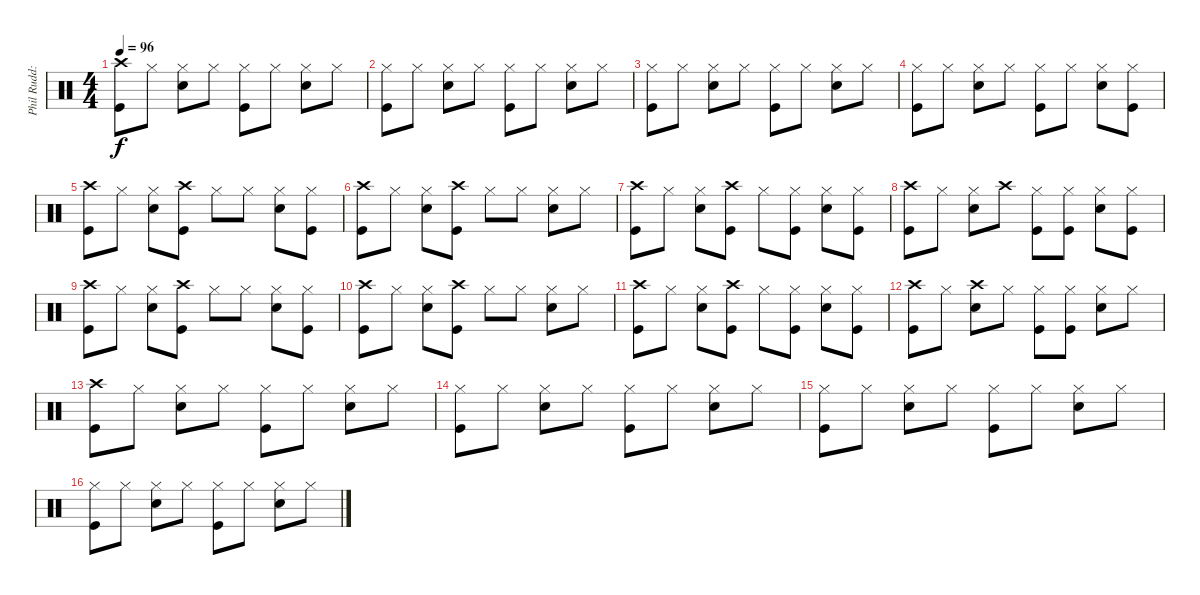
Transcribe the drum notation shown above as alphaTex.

\track ("Phil Rudd: Drums" "Phil Rudd:") {instrument percussion}
\staff {score}
\articulation defaults
\ts (4 4)
\tempo 96
\clef neutral
\ks c
("Crash high (hit)" "Kick (hit)").8{dy f} "Hi-Hat (closed)".8 ("Hi-Hat (closed)" "Snare (hit) 2").8 "Hi-Hat (closed)".8 ("Hi-Hat (closed)" "Kick (hit)").8 "Hi-Hat (closed)".8 ("Hi-Hat (closed)" "Snare (hit) 2").8 "Hi-Hat (closed)".8 |
("Hi-Hat (closed)" "Kick (hit)").8 "Hi-Hat (closed)".8 ("Hi-Hat (closed)" "Snare (hit) 2").8 "Hi-Hat (closed)".8 ("Hi-Hat (closed)" "Kick (hit)").8 "Hi-Hat (closed)".8 ("Hi-Hat (closed)" "Snare (hit) 2").8 "Hi-Hat (closed)".8 |
("Hi-Hat (closed)" "Kick (hit)").8 "Hi-Hat (closed)".8 ("Hi-Hat (closed)" "Snare (hit) 2").8 "Hi-Hat (closed)".8 ("Hi-Hat (closed)" "Kick (hit)").8 "Hi-Hat (closed)".8 ("Hi-Hat (closed)" "Snare (hit) 2").8 "Hi-Hat (closed)".8 |
("Hi-Hat (closed)" "Kick (hit)").8 "Hi-Hat (closed)".8 ("Hi-Hat (closed)" "Snare (hit) 2").8 "Hi-Hat (closed)".8 ("Hi-Hat (closed)" "Kick (hit)").8 "Hi-Hat (closed)".8 ("Hi-Hat (closed)" "Snare (hit) 2").8 ("Hi-Hat (closed)" "Kick (hit)").8 |
("Crash high (hit)" "Kick (hit)").8 "Hi-Hat (closed)".8 ("Hi-Hat (closed)" "Snare (hit) 2").8 ("Crash high (hit)" "Kick (hit)").8 "Hi-Hat (closed)".8 "Hi-Hat (closed)".8 ("Hi-Hat (closed)" "Snare (hit) 2").8 ("Hi-Hat (closed)" "Kick (hit)").8 |
("Crash high (hit)" "Kick (hit)").8 "Hi-Hat (closed)".8 ("Hi-Hat (closed)" "Snare (hit) 2").8 ("Crash high (hit)" "Kick (hit)").8 "Hi-Hat (closed)".8 "Hi-Hat (closed)".8 ("Hi-Hat (closed)" "Snare (hit) 2").8 "Hi-Hat (closed)".8 |
("Crash high (hit)" "Kick (hit)").8 "Hi-Hat (closed)".8 ("Hi-Hat (closed)" "Snare (hit) 2").8 ("Crash high (hit)" "Kick (hit)").8 "Hi-Hat (closed)".8 ("Hi-Hat (closed)" "Kick (hit)").8 ("Hi-Hat (closed)" "Snare (hit) 2").8 ("Hi-Hat (closed)" "Kick (hit)").8 |
("Crash high (hit)" "Kick (hit)").8 "Hi-Hat (closed)".8 ("Hi-Hat (closed)" "Snare (hit) 2").8 "Crash high (hit)".8 ("Hi-Hat (closed)" "Kick (hit)").8 ("Hi-Hat (closed)" "Kick (hit)").8 ("Hi-Hat (closed)" "Snare (hit) 2").8 ("Hi-Hat (closed)" "Kick (hit)").8 |
("Crash high (hit)" "Kick (hit)").8 "Hi-Hat (closed)".8 ("Hi-Hat (closed)" "Snare (hit) 2").8 ("Crash high (hit)" "Kick (hit)").8 "Hi-Hat (closed)".8 "Hi-Hat (closed)".8 ("Hi-Hat (closed)" "Snare (hit) 2").8 ("Hi-Hat (closed)" "Kick (hit)").8 |
("Crash high (hit)" "Kick (hit)").8 "Hi-Hat (closed)".8 ("Hi-Hat (closed)" "Snare (hit) 2").8 ("Crash high (hit)" "Kick (hit)").8 "Hi-Hat (closed)".8 "Hi-Hat (closed)".8 ("Hi-Hat (closed)" "Snare (hit) 2").8 "Hi-Hat (closed)".8 |
("Crash high (hit)" "Kick (hit)").8 "Hi-Hat (closed)".8 ("Hi-Hat (closed)" "Snare (hit) 2").8 ("Crash high (hit)" "Kick (hit)").8 "Hi-Hat (closed)".8 ("Hi-Hat (closed)" "Kick (hit)").8 ("Hi-Hat (closed)" "Snare (hit) 2").8 ("Hi-Hat (closed)" "Kick (hit)").8 |
("Crash high (hit)" "Kick (hit)").8 "Hi-Hat (closed)".8 ("Crash high (hit)" "Snare (hit) 2").8 "Hi-Hat (closed)".8 ("Hi-Hat (closed)" "Kick (hit)").8 ("Hi-Hat (closed)" "Kick (hit)").8 ("Hi-Hat (closed)" "Snare (hit) 2").8 "Hi-Hat (closed)".8 |
("Crash high (hit)" "Kick (hit)").8 "Hi-Hat (closed)".8 ("Hi-Hat (closed)" "Snare (hit) 2").8 "Hi-Hat (closed)".8 ("Hi-Hat (closed)" "Kick (hit)").8 "Hi-Hat (closed)".8 ("Hi-Hat (closed)" "Snare (hit) 2").8 "Hi-Hat (closed)".8 |
("Hi-Hat (closed)" "Kick (hit)").8 "Hi-Hat (closed)".8 ("Hi-Hat (closed)" "Snare (hit) 2").8 "Hi-Hat (closed)".8 ("Hi-Hat (closed)" "Kick (hit)").8 "Hi-Hat (closed)".8 ("Hi-Hat (closed)" "Snare (hit) 2").8 "Hi-Hat (closed)".8 |
("Hi-Hat (closed)" "Kick (hit)").8 "Hi-Hat (closed)".8 ("Hi-Hat (closed)" "Snare (hit) 2").8 "Hi-Hat (closed)".8 ("Hi-Hat (closed)" "Kick (hit)").8 "Hi-Hat (closed)".8 ("Hi-Hat (closed)" "Snare (hit) 2").8 "Hi-Hat (closed)".8 |
("Hi-Hat (closed)" "Kick (hit)").8 "Hi-Hat (closed)".8 ("Hi-Hat (closed)" "Snare (hit) 2").8 "Hi-Hat (closed)".8 ("Hi-Hat (closed)" "Kick (hit)").8 "Hi-Hat (closed)".8 ("Hi-Hat (closed)" "Snare (hit) 2").8 "Hi-Hat (closed)".8
